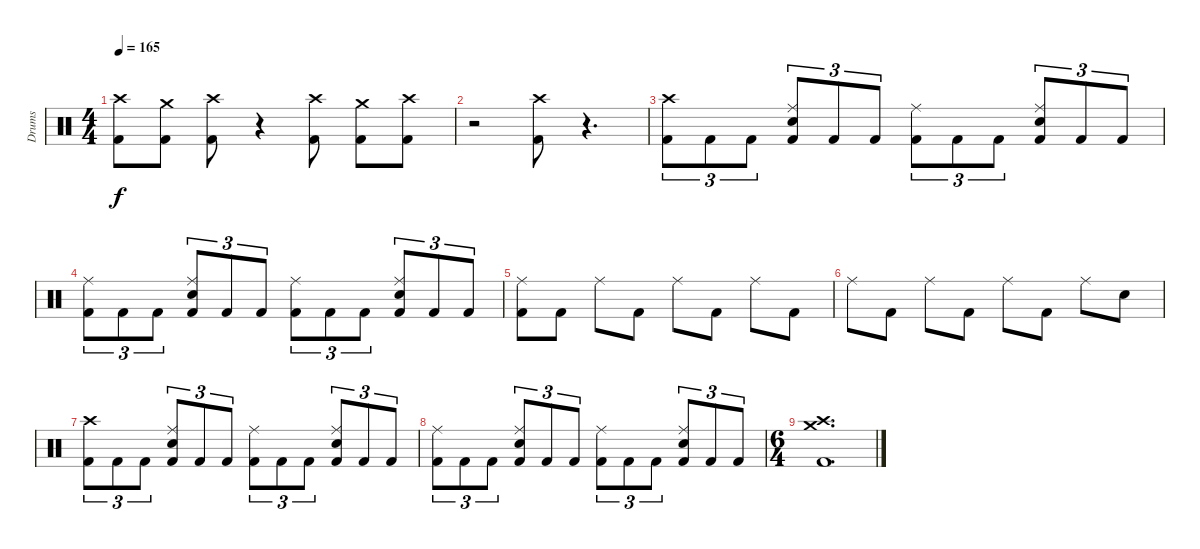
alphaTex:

\track ("Drums" "Drums") {instrument percussion}
\staff {score}
\articulation defaults
\ts (4 4)
\tempo 165
\clef neutral
\ks c
("Crash high (hit)" "Kick (hit) 2").8{dy f} ("Crash medium (hit)" "Kick (hit) 2").8 ("Crash high (hit)" "Kick (hit) 2").8 r.4{volume 0} ("Crash high (hit)" "Kick (hit) 2").8{volume 13} ("Crash medium (hit)" "Kick (hit) 2").8 ("Crash high (hit)" "Kick (hit) 2").8 |
r.2{volume 0} ("Crash high (hit)" "Kick (hit) 2").8{volume 13} r.4{d volume 0} |
("Crash high (hit)" "Kick (hit) 2").8{tu (3 2) volume 13} "Kick (hit) 2".8{tu (3 2)} "Kick (hit) 2".8{tu (3 2)} ("Ride (middle)" "Electric Snare (hit)" "Kick (hit) 2").8{tu (3 2)} "Kick (hit) 2".8{tu (3 2)} "Kick (hit) 2".8{tu (3 2)} ("Ride (middle)" "Kick (hit) 2").8{tu (3 2)} "Kick (hit) 2".8{tu (3 2)} "Kick (hit) 2".8{tu (3 2)} ("Ride (middle)" "Electric Snare (hit)" "Kick (hit) 2").8{tu (3 2)} "Kick (hit) 2".8{tu (3 2)} "Kick (hit) 2".8{tu (3 2)} |
("Ride (middle)" "Kick (hit) 2").8{tu (3 2)} "Kick (hit) 2".8{tu (3 2)} "Kick (hit) 2".8{tu (3 2)} ("Ride (middle)" "Electric Snare (hit)" "Kick (hit) 2").8{tu (3 2)} "Kick (hit) 2".8{tu (3 2)} "Kick (hit) 2".8{tu (3 2)} ("Ride (middle)" "Kick (hit) 2").8{tu (3 2)} "Kick (hit) 2".8{tu (3 2)} "Kick (hit) 2".8{tu (3 2)} ("Ride (middle)" "Electric Snare (hit)" "Kick (hit) 2").8{tu (3 2)} "Kick (hit) 2".8{tu (3 2)} "Kick (hit) 2".8{tu (3 2)} |
("Ride (middle)" "Kick (hit) 2").8 "Kick (hit) 2".8 "Ride (middle)".8 "Kick (hit) 2".8 "Ride (middle)".8 "Kick (hit) 2".8 "Ride (middle)".8 "Kick (hit) 2".8 |
"Ride (middle)".8 "Kick (hit) 2".8 "Ride (middle)".8 "Kick (hit) 2".8 "Ride (middle)".8 "Kick (hit) 2".8 "Ride (middle)".8 "Electric Snare (hit)".8 |
("Crash high (hit)" "Kick (hit) 2").8{tu (3 2)} "Kick (hit) 2".8{tu (3 2)} "Kick (hit) 2".8{tu (3 2)} ("Ride (middle)" "Electric Snare (hit)" "Kick (hit) 2").8{tu (3 2)} "Kick (hit) 2".8{tu (3 2)} "Kick (hit) 2".8{tu (3 2)} ("Ride (middle)" "Kick (hit) 2").8{tu (3 2)} "Kick (hit) 2".8{tu (3 2)} "Kick (hit) 2".8{tu (3 2)} ("Ride (middle)" "Electric Snare (hit)" "Kick (hit) 2").8{tu (3 2)} "Kick (hit) 2".8{tu (3 2)} "Kick (hit) 2".8{tu (3 2)} |
("Ride (middle)" "Kick (hit) 2").8{tu (3 2)} "Kick (hit) 2".8{tu (3 2)} "Kick (hit) 2".8{tu (3 2)} ("Ride (middle)" "Electric Snare (hit)" "Kick (hit) 2").8{tu (3 2)} "Kick (hit) 2".8{tu (3 2)} "Kick (hit) 2".8{tu (3 2)} ("Ride (middle)" "Kick (hit) 2").8{tu (3 2)} "Kick (hit) 2".8{tu (3 2)} "Kick (hit) 2".8{tu (3 2)} ("Ride (middle)" "Electric Snare (hit)" "Kick (hit) 2").8{tu (3 2)} "Kick (hit) 2".8{tu (3 2)} "Kick (hit) 2".8{tu (3 2)} |
\ts (6 4)
("Crash high (hit)" "Crash medium (hit)" "Kick (hit) 2").1{d}
